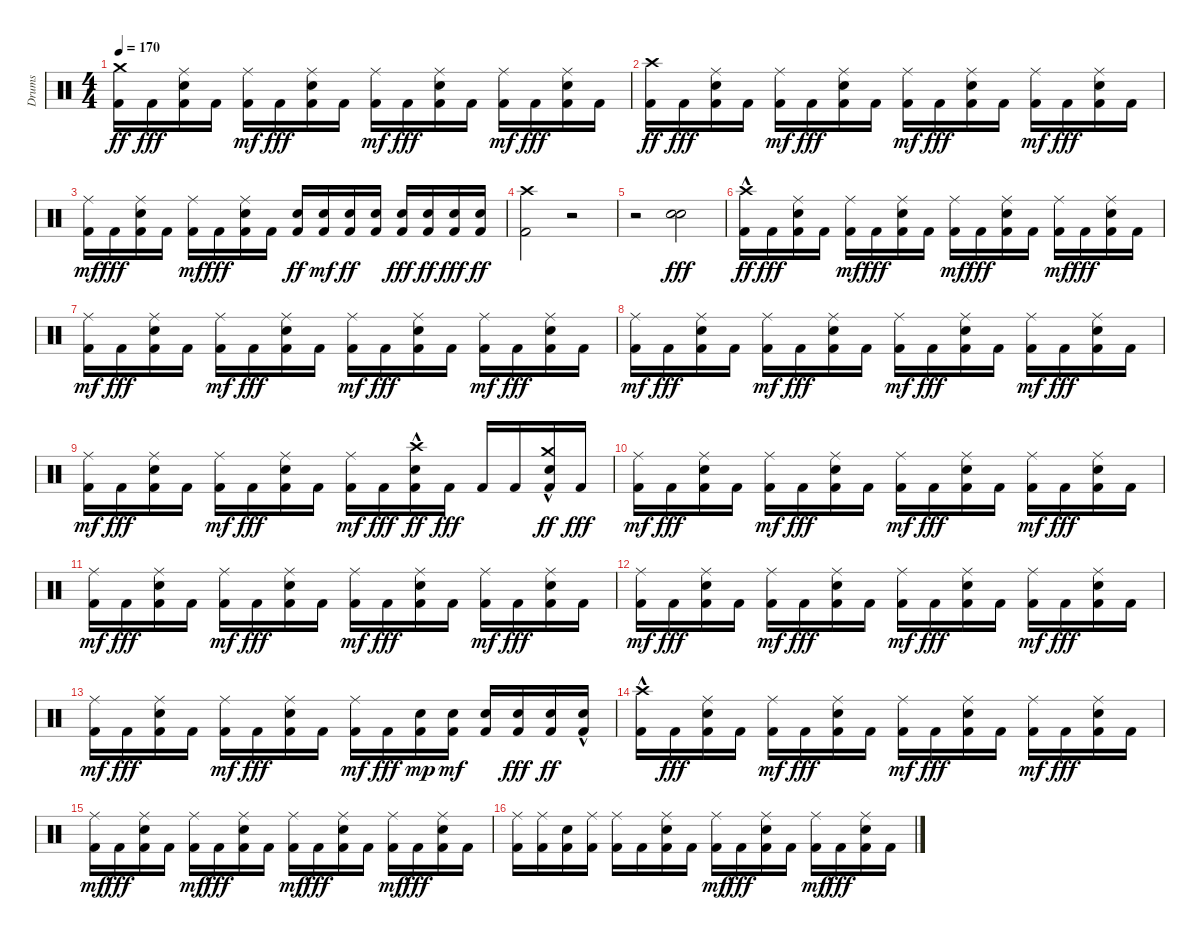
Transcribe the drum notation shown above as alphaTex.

\track ("Drums" "Drums") {instrument percussion}
\staff {score}
\articulation defaults
\ts (4 4)
\tempo 170
\clef neutral
\ks c
("Kick (hit) 2" "Crash medium (hit)").16{dy ff} "Kick (hit) 2".16{dy fff} ("Kick (hit) 2" "Snare (hit) 2" "Ride (middle)").16 "Kick (hit) 2".16 ("Kick (hit) 2" "Ride (middle)").16{dy mf} "Kick (hit) 2".16{dy fff} ("Kick (hit) 2" "Snare (hit) 2" "Ride (middle)").16 "Kick (hit) 2".16 ("Kick (hit) 2" "Ride (middle)").16{dy mf} "Kick (hit) 2".16{dy fff} ("Kick (hit) 2" "Snare (hit) 2" "Ride (middle)").16 "Kick (hit) 2".16 ("Kick (hit) 2" "Ride (middle)").16{dy mf} "Kick (hit) 2".16{dy fff} ("Kick (hit) 2" "Snare (hit) 2" "Ride (middle)").16 "Kick (hit) 2".16 |
("Kick (hit) 2" "Crash high (hit)").16{dy ff} "Kick (hit) 2".16{dy fff} ("Kick (hit) 2" "Snare (hit) 2" "Ride (middle)").16 "Kick (hit) 2".16 ("Kick (hit) 2" "Ride (middle)").16{dy mf} "Kick (hit) 2".16{dy fff} ("Kick (hit) 2" "Snare (hit) 2" "Ride (middle)").16 "Kick (hit) 2".16 ("Kick (hit) 2" "Ride (middle)").16{dy mf} "Kick (hit) 2".16{dy fff} ("Kick (hit) 2" "Snare (hit) 2" "Ride (middle)").16 "Kick (hit) 2".16 ("Kick (hit) 2" "Ride (middle)").16{dy mf} "Kick (hit) 2".16{dy fff} ("Kick (hit) 2" "Snare (hit) 2" "Ride (middle)").16 "Kick (hit) 2".16 |
("Kick (hit) 2" "Ride (middle)").16{dy mf} "Kick (hit) 2".16{dy fff} ("Kick (hit) 2" "Snare (hit) 2" "Ride (middle)").16 "Kick (hit) 2".16 ("Kick (hit) 2" "Ride (middle)").16{dy mf} "Kick (hit) 2".16{dy fff} ("Kick (hit) 2" "Snare (hit) 2" "Ride (middle)").16 "Kick (hit) 2".16 ("Kick (hit) 2" "Snare (hit) 2").16{dy ff} ("Kick (hit) 2" "Snare (hit) 2").16{dy mf} ("Kick (hit) 2" "Snare (hit) 2").16{dy ff} ("Kick (hit) 2" "Snare (hit) 2").16 ("Kick (hit) 2" "Snare (hit) 2").16{dy fff} ("Kick (hit) 2" "Snare (hit) 2").16{dy ff} ("Kick (hit) 2" "Snare (hit) 2").16{dy fff} ("Kick (hit) 2" "Snare (hit) 2").16{dy ff} |
("Kick (hit) 2" "Crash high (hit)").2 r.2 |
r.2 ("Snare (hit) 2" "Snare (hit) 2").2{dy fff} |
("Kick (hit) 2" "Crash high (hit)"{hac}).16{dy ff} "Kick (hit) 2".16{dy fff} ("Kick (hit) 2" "Snare (hit) 2" "Ride (middle)").16 "Kick (hit) 2".16 ("Kick (hit) 2" "Ride (middle)").16{dy mf} "Kick (hit) 2".16{dy fff} ("Kick (hit) 2" "Snare (hit) 2" "Ride (middle)").16 "Kick (hit) 2".16 ("Kick (hit) 2" "Ride (middle)").16{dy mf} "Kick (hit) 2".16{dy fff} ("Kick (hit) 2" "Snare (hit) 2" "Ride (middle)").16 "Kick (hit) 2".16 ("Kick (hit) 2" "Ride (middle)").16{dy mf} "Kick (hit) 2".16{dy fff} ("Kick (hit) 2" "Snare (hit) 2" "Ride (middle)").16 "Kick (hit) 2".16 |
("Kick (hit) 2" "Ride (middle)").16{dy mf} "Kick (hit) 2".16{dy fff} ("Kick (hit) 2" "Snare (hit) 2" "Ride (middle)").16 "Kick (hit) 2".16 ("Kick (hit) 2" "Ride (middle)").16{dy mf} "Kick (hit) 2".16{dy fff} ("Kick (hit) 2" "Snare (hit) 2" "Ride (middle)").16 "Kick (hit) 2".16 ("Kick (hit) 2" "Ride (middle)").16{dy mf} "Kick (hit) 2".16{dy fff} ("Kick (hit) 2" "Snare (hit) 2" "Ride (middle)").16 "Kick (hit) 2".16 ("Kick (hit) 2" "Ride (middle)").16{dy mf} "Kick (hit) 2".16{dy fff} ("Kick (hit) 2" "Snare (hit) 2" "Ride (middle)").16 "Kick (hit) 2".16 |
("Kick (hit) 2" "Ride (middle)").16{dy mf} "Kick (hit) 2".16{dy fff} ("Kick (hit) 2" "Snare (hit) 2" "Ride (middle)").16 "Kick (hit) 2".16 ("Kick (hit) 2" "Ride (middle)").16{dy mf} "Kick (hit) 2".16{dy fff} ("Kick (hit) 2" "Snare (hit) 2" "Ride (middle)").16 "Kick (hit) 2".16 ("Kick (hit) 2" "Ride (middle)").16{dy mf} "Kick (hit) 2".16{dy fff} ("Kick (hit) 2" "Snare (hit) 2" "Ride (middle)").16 "Kick (hit) 2".16 ("Kick (hit) 2" "Ride (middle)").16{dy mf} "Kick (hit) 2".16{dy fff} ("Kick (hit) 2" "Snare (hit) 2" "Ride (middle)").16 "Kick (hit) 2".16 |
("Kick (hit) 2" "Ride (middle)").16{dy mf} "Kick (hit) 2".16{dy fff} ("Kick (hit) 2" "Snare (hit) 2" "Ride (middle)").16 "Kick (hit) 2".16 ("Kick (hit) 2" "Ride (middle)").16{dy mf} "Kick (hit) 2".16{dy fff} ("Kick (hit) 2" "Snare (hit) 2" "Ride (middle)").16 "Kick (hit) 2".16 ("Kick (hit) 2" "Ride (middle)").16{dy mf} "Kick (hit) 2".16{dy fff} ("Kick (hit) 2" "Snare (hit) 2" "Crash high (hit)"{hac}).16{dy ff} "Kick (hit) 2".16{dy fff} "Kick (hit) 2".16 "Kick (hit) 2".16 ("Kick (hit) 2" "Snare (hit) 2" "Crash medium (hit)"{hac}).16{dy ff} "Kick (hit) 2".16{dy fff} |
("Kick (hit) 2" "Ride (middle)").16{dy mf} "Kick (hit) 2".16{dy fff} ("Kick (hit) 2" "Snare (hit) 2" "Ride (middle)").16 "Kick (hit) 2".16 ("Kick (hit) 2" "Ride (middle)").16{dy mf} "Kick (hit) 2".16{dy fff} ("Kick (hit) 2" "Snare (hit) 2" "Ride (middle)").16 "Kick (hit) 2".16 ("Kick (hit) 2" "Ride (middle)").16{dy mf} "Kick (hit) 2".16{dy fff} ("Kick (hit) 2" "Snare (hit) 2" "Ride (middle)").16 "Kick (hit) 2".16 ("Kick (hit) 2" "Ride (middle)").16{dy mf} "Kick (hit) 2".16{dy fff} ("Kick (hit) 2" "Snare (hit) 2" "Ride (middle)").16 "Kick (hit) 2".16 |
("Kick (hit) 2" "Ride (middle)").16{dy mf} "Kick (hit) 2".16{dy fff} ("Kick (hit) 2" "Snare (hit) 2" "Ride (middle)").16 "Kick (hit) 2".16 ("Kick (hit) 2" "Ride (middle)").16{dy mf} "Kick (hit) 2".16{dy fff} ("Kick (hit) 2" "Snare (hit) 2" "Ride (middle)").16 "Kick (hit) 2".16 ("Kick (hit) 2" "Ride (middle)").16{dy mf} "Kick (hit) 2".16{dy fff} ("Kick (hit) 2" "Snare (hit) 2" "Ride (middle)").16 "Kick (hit) 2".16 ("Kick (hit) 2" "Ride (middle)").16{dy mf} "Kick (hit) 2".16{dy fff} ("Kick (hit) 2" "Snare (hit) 2" "Ride (middle)").16 "Kick (hit) 2".16 |
("Kick (hit) 2" "Ride (middle)").16{dy mf} "Kick (hit) 2".16{dy fff} ("Kick (hit) 2" "Snare (hit) 2" "Ride (middle)").16 "Kick (hit) 2".16 ("Kick (hit) 2" "Ride (middle)").16{dy mf} "Kick (hit) 2".16{dy fff} ("Kick (hit) 2" "Snare (hit) 2" "Ride (middle)").16 "Kick (hit) 2".16 ("Kick (hit) 2" "Ride (middle)").16{dy mf} "Kick (hit) 2".16{dy fff} ("Kick (hit) 2" "Snare (hit) 2" "Ride (middle)").16 "Kick (hit) 2".16 ("Kick (hit) 2" "Ride (middle)").16{dy mf} "Kick (hit) 2".16{dy fff} ("Kick (hit) 2" "Snare (hit) 2" "Ride (middle)").16 "Kick (hit) 2".16 |
("Kick (hit) 2" "Ride (middle)").16{dy mf} "Kick (hit) 2".16{dy fff} ("Kick (hit) 2" "Snare (hit) 2" "Ride (middle)").16 "Kick (hit) 2".16 ("Kick (hit) 2" "Ride (middle)").16{dy mf} "Kick (hit) 2".16{dy fff} ("Kick (hit) 2" "Snare (hit) 2" "Ride (middle)").16 "Kick (hit) 2".16 ("Kick (hit) 2" "Ride (middle)").16{dy mf} "Kick (hit) 2".16{dy fff} ("Kick (hit) 2" "Snare (hit) 2").16{dy mp} ("Kick (hit) 2" "Snare (hit) 2").16{dy mf} ("Kick (hit) 2" "Snare (hit) 2").16 ("Kick (hit) 2" "Snare (hit) 2").16{dy fff} ("Kick (hit) 2" "Snare (hit) 2").16{dy ff} ("Kick (hit) 2" "Snare (hit) 2"{hac}).16 |
("Kick (hit) 2" "Crash high (hit)"{hac}).16 "Kick (hit) 2".16{dy fff} ("Kick (hit) 2" "Snare (hit) 2" "Ride (middle)").16 "Kick (hit) 2".16 ("Kick (hit) 2" "Ride (middle)").16{dy mf} "Kick (hit) 2".16{dy fff} ("Kick (hit) 2" "Snare (hit) 2" "Ride (middle)").16 "Kick (hit) 2".16 ("Kick (hit) 2" "Ride (middle)").16{dy mf} "Kick (hit) 2".16{dy fff} ("Kick (hit) 2" "Snare (hit) 2" "Ride (middle)").16 "Kick (hit) 2".16 ("Kick (hit) 2" "Ride (middle)").16{dy mf} "Kick (hit) 2".16{dy fff} ("Kick (hit) 2" "Snare (hit) 2" "Ride (middle)").16 "Kick (hit) 2".16 |
("Kick (hit) 2" "Ride (middle)").16{dy mf} "Kick (hit) 2".16{dy fff} ("Kick (hit) 2" "Snare (hit) 2" "Ride (middle)").16 "Kick (hit) 2".16 ("Kick (hit) 2" "Ride (middle)").16{dy mf} "Kick (hit) 2".16{dy fff} ("Kick (hit) 2" "Snare (hit) 2" "Ride (middle)").16 "Kick (hit) 2".16 ("Kick (hit) 2" "Ride (middle)").16{dy mf} "Kick (hit) 2".16{dy fff} ("Kick (hit) 2" "Snare (hit) 2" "Ride (middle)").16 "Kick (hit) 2".16 ("Kick (hit) 2" "Ride (middle)").16{dy mf} "Kick (hit) 2".16{dy fff} ("Kick (hit) 2" "Snare (hit) 2" "Ride (middle)").16 "Kick (hit) 2".16 |
("Kick (hit) 2" "Ride (middle)").16 ("Kick (hit) 2" "Ride (middle)").16 ("Kick (hit) 2" "Snare (hit) 2").16 ("Kick (hit) 2" "Ride (middle)").16 ("Kick (hit) 2" "Ride (middle)").16 "Kick (hit) 2".16 ("Kick (hit) 2" "Snare (hit) 2" "Ride (middle)").16 "Kick (hit) 2".16 ("Kick (hit) 2" "Ride (middle)").16{dy mf} "Kick (hit) 2".16{dy fff} ("Kick (hit) 2" "Snare (hit) 2" "Ride (middle)").16 "Kick (hit) 2".16 ("Kick (hit) 2" "Ride (middle)").16{dy mf} "Kick (hit) 2".16{dy fff} ("Kick (hit) 2" "Snare (hit) 2" "Ride (middle)").16 "Kick (hit) 2".16
